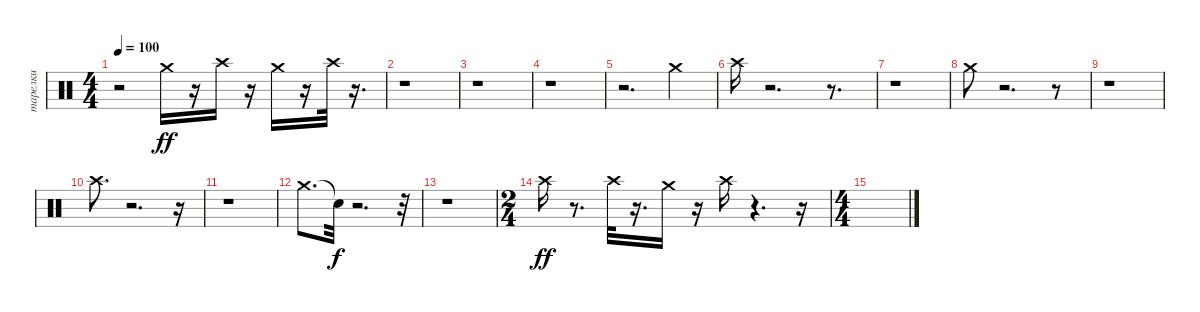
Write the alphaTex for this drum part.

\track ("тарелки" "тарелки") {instrument percussion}
\staff {score}
\articulation defaults
\ts (4 4)
\tempo 100
\clef neutral
\ks c
r.2{dy ff} "Crash medium (hit)".16 r.16 "Crash high (hit)".16 r.16 "Crash medium (hit)".16 r.16 "Crash high (hit)".32 r.16{d} |
r.1 |
r.1 |
r.1 |
r.2{d} "Crash medium (hit)".4 |
"Crash high (hit)".16 r.2{d} r.8{d} |
r.1 |
"Crash medium (hit)".8 r.2{d} r.8 |
r.1 |
"Crash high (hit)".8{d} r.2{d} r.16 |
r.1 |
"Crash medium (hit)".8{d} "Snare (hit)"{t}.32{dy f} r.2{d} r.32 |
r.1 |
\ts (2 4)
"Crash high (hit)".16{dy ff} r.8{d} "Crash high (hit)".32 r.16{d} "Crash medium (hit)".16 r.16 "Crash high (hit)".16 r.4{d} r.16 |
\ts (4 4)
